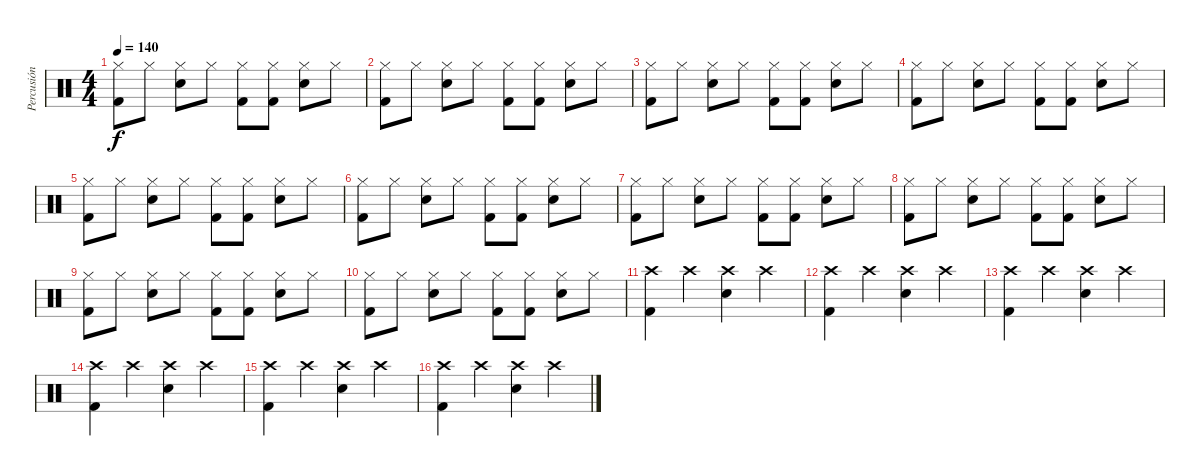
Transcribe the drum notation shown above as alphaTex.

\track ("Percusión" "Percusión") {instrument percussion}
\staff {score}
\articulation defaults
\ts (4 4)
\tempo 140
\clef neutral
\ks c
("Hi-Hat (closed)" "Kick (hit) 2").8{dy f} "Hi-Hat (closed)".8 ("Hi-Hat (closed)" "Snare (hit) 2").8 "Hi-Hat (closed)".8 ("Hi-Hat (closed)" "Kick (hit) 2").8 ("Hi-Hat (closed)" "Kick (hit) 2").8 ("Hi-Hat (closed)" "Snare (hit) 2").8 "Hi-Hat (closed)".8 |
("Hi-Hat (closed)" "Kick (hit) 2").8 "Hi-Hat (closed)".8 ("Hi-Hat (closed)" "Snare (hit) 2").8 "Hi-Hat (closed)".8 ("Hi-Hat (closed)" "Kick (hit) 2").8 ("Hi-Hat (closed)" "Kick (hit) 2").8 ("Hi-Hat (closed)" "Snare (hit) 2").8 "Hi-Hat (closed)".8 |
("Hi-Hat (closed)" "Kick (hit) 2").8 "Hi-Hat (closed)".8 ("Hi-Hat (closed)" "Snare (hit) 2").8 "Hi-Hat (closed)".8 ("Hi-Hat (closed)" "Kick (hit) 2").8 ("Hi-Hat (closed)" "Kick (hit) 2").8 ("Hi-Hat (closed)" "Snare (hit) 2").8 "Hi-Hat (closed)".8 |
("Hi-Hat (closed)" "Kick (hit) 2").8 "Hi-Hat (closed)".8 ("Hi-Hat (closed)" "Snare (hit) 2").8 "Hi-Hat (closed)".8 ("Hi-Hat (closed)" "Kick (hit) 2").8 ("Hi-Hat (closed)" "Kick (hit) 2").8 ("Hi-Hat (closed)" "Snare (hit) 2").8 "Hi-Hat (closed)".8 |
("Hi-Hat (closed)" "Kick (hit) 2").8 "Hi-Hat (closed)".8 ("Hi-Hat (closed)" "Snare (hit) 2").8 "Hi-Hat (closed)".8 ("Hi-Hat (closed)" "Kick (hit) 2").8 ("Hi-Hat (closed)" "Kick (hit) 2").8 ("Hi-Hat (closed)" "Snare (hit) 2").8 "Hi-Hat (closed)".8 |
("Hi-Hat (closed)" "Kick (hit) 2").8 "Hi-Hat (closed)".8 ("Hi-Hat (closed)" "Snare (hit) 2").8 "Hi-Hat (closed)".8 ("Hi-Hat (closed)" "Kick (hit) 2").8 ("Hi-Hat (closed)" "Kick (hit) 2").8 ("Hi-Hat (closed)" "Snare (hit) 2").8 "Hi-Hat (closed)".8 |
("Hi-Hat (closed)" "Kick (hit) 2").8 "Hi-Hat (closed)".8 ("Hi-Hat (closed)" "Snare (hit) 2").8 "Hi-Hat (closed)".8 ("Hi-Hat (closed)" "Kick (hit) 2").8 ("Hi-Hat (closed)" "Kick (hit) 2").8 ("Hi-Hat (closed)" "Snare (hit) 2").8 "Hi-Hat (closed)".8 |
("Hi-Hat (closed)" "Kick (hit) 2").8 "Hi-Hat (closed)".8 ("Hi-Hat (closed)" "Snare (hit) 2").8 "Hi-Hat (closed)".8 ("Hi-Hat (closed)" "Kick (hit) 2").8 ("Hi-Hat (closed)" "Kick (hit) 2").8 ("Hi-Hat (closed)" "Snare (hit) 2").8 "Hi-Hat (closed)".8 |
("Hi-Hat (closed)" "Kick (hit) 2").8 "Hi-Hat (closed)".8 ("Hi-Hat (closed)" "Snare (hit) 2").8 "Hi-Hat (closed)".8 ("Hi-Hat (closed)" "Kick (hit) 2").8 ("Hi-Hat (closed)" "Kick (hit) 2").8 ("Hi-Hat (closed)" "Snare (hit) 2").8 "Hi-Hat (closed)".8 |
("Hi-Hat (closed)" "Kick (hit) 2").8 "Hi-Hat (closed)".8 ("Hi-Hat (closed)" "Snare (hit) 2").8 "Hi-Hat (closed)".8 ("Hi-Hat (closed)" "Kick (hit) 2").8 ("Hi-Hat (closed)" "Kick (hit) 2").8 ("Hi-Hat (closed)" "Snare (hit) 2").8 "Hi-Hat (closed)".8 |
("Crash high (hit)" "Kick (hit) 2").4 "Crash high (hit)".4 ("Crash high (hit)" "Snare (hit) 2").4 "Crash high (hit)".4 |
("Crash high (hit)" "Kick (hit) 2").4 "Crash high (hit)".4 ("Crash high (hit)" "Snare (hit) 2").4 "Crash high (hit)".4 |
("Crash high (hit)" "Kick (hit) 2").4 "Crash high (hit)".4 ("Crash high (hit)" "Snare (hit) 2").4 "Crash high (hit)".4 |
("Crash high (hit)" "Kick (hit) 2").4 "Crash high (hit)".4 ("Crash high (hit)" "Snare (hit) 2").4 "Crash high (hit)".4 |
("Crash high (hit)" "Kick (hit) 2").4 "Crash high (hit)".4 ("Crash high (hit)" "Snare (hit) 2").4 "Crash high (hit)".4 |
("Crash high (hit)" "Kick (hit) 2").4 "Crash high (hit)".4 ("Crash high (hit)" "Snare (hit) 2").4 "Crash high (hit)".4
